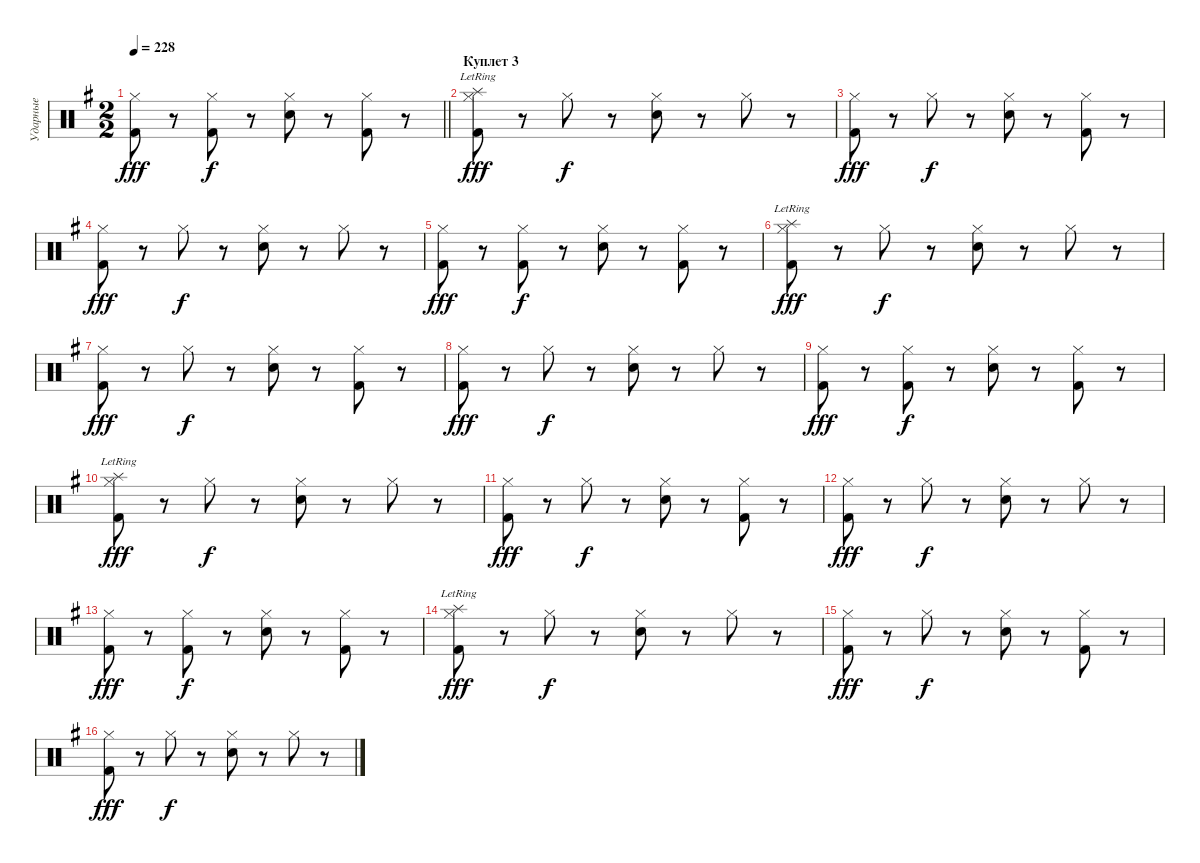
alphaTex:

\track ("Ударные" "Ударные") {instrument percussion}
\staff {score}
\articulation defaults
\ts (2 2)
\tempo 228
\clef neutral
\barLineRight lightlight
\ks eminor
("Hi-Hat (closed)" "Kick (hit) 2").8{dy fff} r.8 ("Hi-Hat (closed)" "Kick (hit) 2").8{dy f} r.8 ("Hi-Hat (closed)" "Snare (hit) 2").8 r.8 ("Hi-Hat (closed)" "Kick (hit) 2").8 r.8 |
\section ("" "Куплет 3")
("Hi-Hat (closed)" "Splash (hit)"{lr} "Kick (hit) 2").8{dy fff} r.8 "Hi-Hat (closed)".8{dy f} r.8 ("Hi-Hat (closed)" "Snare (hit) 2").8 r.8 "Hi-Hat (closed)".8 r.8 |
("Hi-Hat (closed)" "Kick (hit) 2").8{dy fff} r.8 "Hi-Hat (closed)".8{dy f} r.8 ("Hi-Hat (closed)" "Snare (hit) 2").8 r.8 ("Hi-Hat (closed)" "Kick (hit) 2").8 r.8 |
("Hi-Hat (closed)" "Kick (hit) 2").8{dy fff} r.8 "Hi-Hat (closed)".8{dy f} r.8 ("Hi-Hat (closed)" "Snare (hit) 2").8 r.8 "Hi-Hat (closed)".8 r.8 |
("Hi-Hat (closed)" "Kick (hit) 2").8{dy fff} r.8 ("Hi-Hat (closed)" "Kick (hit) 2").8{dy f} r.8 ("Hi-Hat (closed)" "Snare (hit) 2").8 r.8 ("Hi-Hat (closed)" "Kick (hit) 2").8 r.8 |
("Hi-Hat (closed)" "Splash (hit)"{lr} "Kick (hit) 2").8{dy fff} r.8 "Hi-Hat (closed)".8{dy f} r.8 ("Hi-Hat (closed)" "Snare (hit) 2").8 r.8 "Hi-Hat (closed)".8 r.8 |
("Hi-Hat (closed)" "Kick (hit) 2").8{dy fff} r.8 "Hi-Hat (closed)".8{dy f} r.8 ("Hi-Hat (closed)" "Snare (hit) 2").8 r.8 ("Hi-Hat (closed)" "Kick (hit) 2").8 r.8 |
("Hi-Hat (closed)" "Kick (hit) 2").8{dy fff} r.8 "Hi-Hat (closed)".8{dy f} r.8 ("Hi-Hat (closed)" "Snare (hit) 2").8 r.8 "Hi-Hat (closed)".8 r.8 |
("Hi-Hat (closed)" "Kick (hit) 2").8{dy fff} r.8 ("Hi-Hat (closed)" "Kick (hit) 2").8{dy f} r.8 ("Hi-Hat (closed)" "Snare (hit) 2").8 r.8 ("Hi-Hat (closed)" "Kick (hit) 2").8 r.8 |
("Hi-Hat (closed)" "Splash (hit)"{lr} "Kick (hit) 2").8{dy fff} r.8 "Hi-Hat (closed)".8{dy f} r.8 ("Hi-Hat (closed)" "Snare (hit) 2").8 r.8 "Hi-Hat (closed)".8 r.8 |
("Hi-Hat (closed)" "Kick (hit) 2").8{dy fff} r.8 "Hi-Hat (closed)".8{dy f} r.8 ("Hi-Hat (closed)" "Snare (hit) 2").8 r.8 ("Hi-Hat (closed)" "Kick (hit) 2").8 r.8 |
("Hi-Hat (closed)" "Kick (hit) 2").8{dy fff} r.8 "Hi-Hat (closed)".8{dy f} r.8 ("Hi-Hat (closed)" "Snare (hit) 2").8 r.8 "Hi-Hat (closed)".8 r.8 |
("Hi-Hat (closed)" "Kick (hit) 2").8{dy fff} r.8 ("Hi-Hat (closed)" "Kick (hit) 2").8{dy f} r.8 ("Hi-Hat (closed)" "Snare (hit) 2").8 r.8 ("Hi-Hat (closed)" "Kick (hit) 2").8 r.8 |
("Hi-Hat (closed)" "Splash (hit)"{lr} "Kick (hit) 2").8{dy fff} r.8 "Hi-Hat (closed)".8{dy f} r.8 ("Hi-Hat (closed)" "Snare (hit) 2").8 r.8 "Hi-Hat (closed)".8 r.8 |
("Hi-Hat (closed)" "Kick (hit) 2").8{dy fff} r.8 "Hi-Hat (closed)".8{dy f} r.8 ("Hi-Hat (closed)" "Snare (hit) 2").8 r.8 ("Hi-Hat (closed)" "Kick (hit) 2").8 r.8 |
("Hi-Hat (closed)" "Kick (hit) 2").8{dy fff} r.8 "Hi-Hat (closed)".8{dy f} r.8 ("Hi-Hat (closed)" "Snare (hit) 2").8 r.8 "Hi-Hat (closed)".8 r.8
